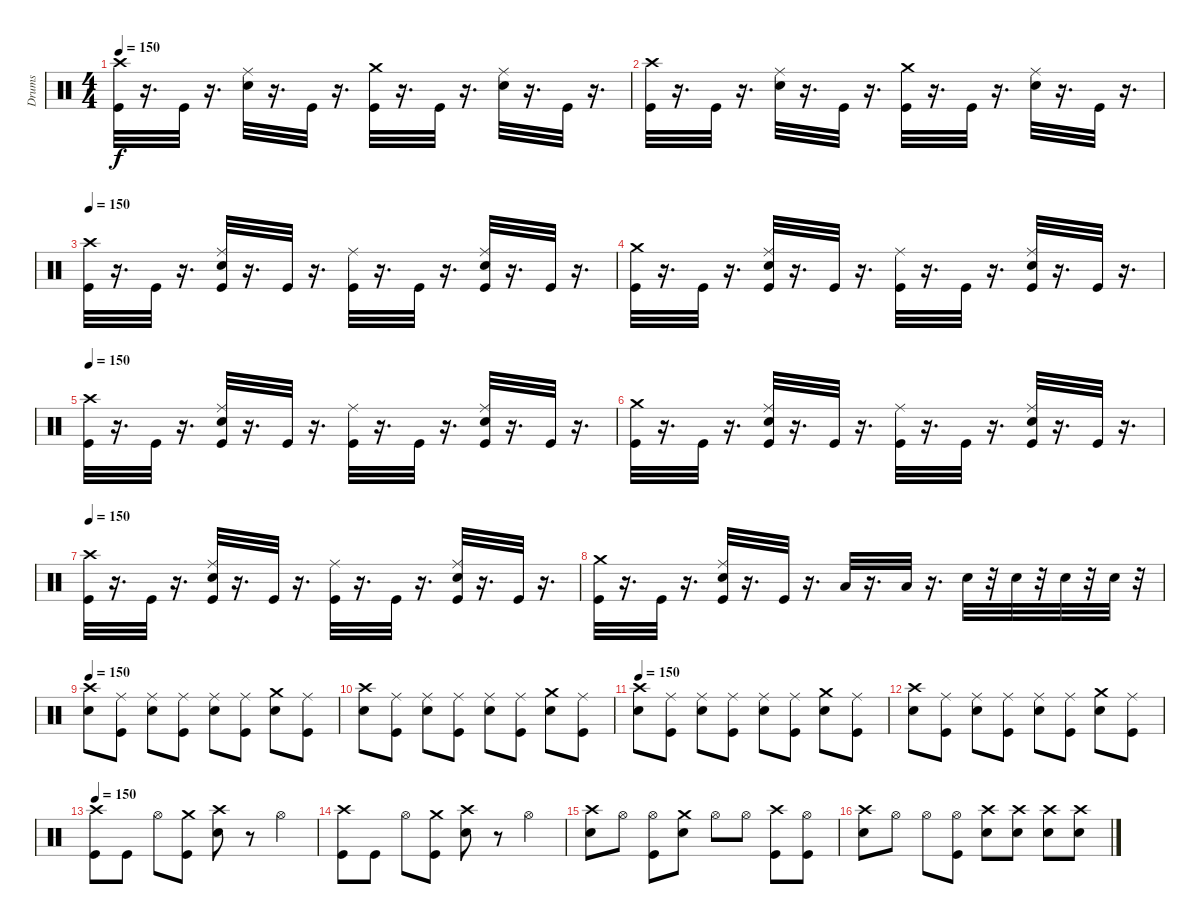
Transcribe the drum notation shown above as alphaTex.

\track ("Drums" "Drums") {instrument percussion}
\staff {score}
\articulation defaults
\ts (4 4)
\tempo 150
\clef neutral
\ks c
("Kick (hit)" "Crash high (hit)").32{dy f} r.16{d} "Kick (hit)".32 r.16{d} ("Ride (middle)" "Electric Snare (hit)").32 r.16{d} "Kick (hit)".32 r.16{d} ("Kick (hit)" "Crash medium (hit)").32 r.16{d} "Kick (hit)".32 r.16{d} ("Ride (middle)" "Electric Snare (hit)").32 r.16{d} "Kick (hit)".32 r.16{d} |
("Crash high (hit)" "Kick (hit)").32 r.16{d} "Kick (hit)".32 r.16{d} ("Ride (middle)" "Electric Snare (hit)").32 r.16{d} "Kick (hit)".32 r.16{d} ("Crash medium (hit)" "Kick (hit)").32 r.16{d} "Kick (hit)".32 r.16{d} ("Ride (middle)" "Electric Snare (hit)").32 r.16{d} "Kick (hit)".32 r.16{d} |
\tempo 150
("Crash high (hit)" "Kick (hit)").32 r.16{d} "Kick (hit)".32 r.16{d} ("Ride (middle)" "Electric Snare (hit)" "Kick (hit)").32 r.16{d} "Kick (hit)".32 r.16{d} ("Ride (middle)" "Kick (hit)").32 r.16{d} "Kick (hit)".32 r.16{d} ("Ride (middle)" "Electric Snare (hit)" "Kick (hit)").32 r.16{d} "Kick (hit)".32 r.16{d} |
("Crash medium (hit)" "Kick (hit)").32 r.16{d} "Kick (hit)".32 r.16{d} ("Ride (middle)" "Electric Snare (hit)" "Kick (hit)").32 r.16{d} "Kick (hit)".32 r.16{d} ("Ride (middle)" "Kick (hit)").32 r.16{d} "Kick (hit)".32 r.16{d} ("Ride (middle)" "Electric Snare (hit)" "Kick (hit)").32 r.16{d} "Kick (hit)".32 r.16{d} |
\tempo 150
("Crash high (hit)" "Kick (hit)").32 r.16{d} "Kick (hit)".32 r.16{d} ("Ride (middle)" "Kick (hit)" "Electric Snare (hit)").32 r.16{d} "Kick (hit)".32 r.16{d} ("Ride (middle)" "Kick (hit)").32 r.16{d} "Kick (hit)".32 r.16{d} ("Ride (middle)" "Electric Snare (hit)" "Kick (hit)").32 r.16{d} "Kick (hit)".32 r.16{d} |
("Kick (hit)" "Crash medium (hit)").32 r.16{d} "Kick (hit)".32 r.16{d} ("Kick (hit)" "Electric Snare (hit)" "Ride (middle)").32 r.16{d} "Kick (hit)".32 r.16{d} ("Kick (hit)" "Ride (middle)").32 r.16{d} "Kick (hit)".32 r.16{d} ("Kick (hit)" "Electric Snare (hit)" "Ride (middle)").32 r.16{d} "Kick (hit)".32 r.16{d} |
\tempo 150
("Kick (hit)" "Crash high (hit)").32 r.16{d} "Kick (hit)".32 r.16{d} ("Ride (middle)" "Kick (hit)" "Electric Snare (hit)").32 r.16{d} "Kick (hit)".32 r.16{d} ("Ride (middle)" "Kick (hit)").32 r.16{d} "Kick (hit)".32 r.16{d} ("Ride (middle)" "Kick (hit)" "Electric Snare (hit)").32 r.16{d} "Kick (hit)".32 r.16{d} |
("Crash medium (hit)" "Kick (hit)").32 r.16{d} "Kick (hit)".32 r.16{d} ("Ride (middle)" "Electric Snare (hit)" "Kick (hit)").32 r.16{d} "Kick (hit)".32 r.16{d} "Low Tom (hit)".32 r.16{d} "Low Tom (hit)".32 r.16{d} "Electric Snare (hit)".32 r.32 "Electric Snare (hit)".32 r.32 "Electric Snare (hit)".32 r.32 "Electric Snare (hit)".32 r.32 |
\tempo 150
("Crash high (hit)" "Electric Snare (hit)").8 ("Ride (middle)" "Kick (hit)").8 ("Ride (middle)" "Electric Snare (hit)").8 ("Ride (middle)" "Kick (hit)").8 ("Electric Snare (hit)" "Ride (middle)").8 ("Ride (middle)" "Kick (hit)").8 ("Electric Snare (hit)" "Crash medium (hit)").8 ("Ride (middle)" "Kick (hit)").8 |
("Electric Snare (hit)" "Crash high (hit)").8 ("Ride (middle)" "Kick (hit)").8 ("Ride (middle)" "Electric Snare (hit)").8 ("Kick (hit)" "Ride (middle)").8 ("Ride (middle)" "Electric Snare (hit)").8 ("Kick (hit)" "Ride (middle)").8 ("Crash medium (hit)" "Electric Snare (hit)").8 ("Ride (middle)" "Kick (hit)").8 |
\tempo 150
("Crash high (hit)" "Electric Snare (hit)").8 ("Ride (middle)" "Kick (hit)").8 ("Electric Snare (hit)" "Ride (middle)").8 ("Ride (middle)" "Kick (hit)").8 ("Electric Snare (hit)" "Ride (middle)").8 ("Ride (middle)" "Kick (hit)").8 ("Crash medium (hit)" "Electric Snare (hit)").8 ("Kick (hit)" "Ride (middle)").8 |
("Crash high (hit)" "Electric Snare (hit)").8 ("Kick (hit)" "Ride (middle)").8 ("Electric Snare (hit)" "Ride (middle)").8 ("Kick (hit)" "Ride (middle)").8 ("Ride (middle)" "Electric Snare (hit)").8 ("Ride (middle)" "Kick (hit)").8 ("Crash medium (hit)" "Electric Snare (hit)").8 ("Ride (middle)" "Kick (hit)").8 |
\tempo 150
("Crash high (hit)" "Kick (hit)").8 "Kick (hit)".8 "Hi-Hat (open)".8 ("Kick (hit)" "Crash medium (hit)").8 ("Crash high (hit)" "Electric Snare (hit)").8 r.8 "Hi-Hat (open)".4 |
("Crash high (hit)" "Kick (hit)").8 "Kick (hit)".8 "Hi-Hat (open)".8 ("Crash medium (hit)" "Kick (hit)").8 ("Crash high (hit)" "Electric Snare (hit)").8 r.8 "Hi-Hat (open)".4 |
("Electric Snare (hit)" "Crash high (hit)").8 "Hi-Hat (open)".8 ("Kick (hit)" "Hi-Hat (open)").8 ("Crash medium (hit)" "Electric Snare (hit)").8 "Hi-Hat (open)".8 "Hi-Hat (open)".8 ("Crash high (hit)" "Kick (hit)").8 ("Hi-Hat (open)" "Kick (hit)").8 |
("Electric Snare (hit)" "Crash high (hit)").8 "Hi-Hat (open)".8 "Hi-Hat (open)".8 ("Hi-Hat (open)" "Kick (hit)").8 ("Crash high (hit)" "Electric Snare (hit)").8 ("Crash high (hit)" "Electric Snare (hit)").8 ("Crash high (hit)" "Electric Snare (hit)").8 ("Electric Snare (hit)" "Crash high (hit)").8
